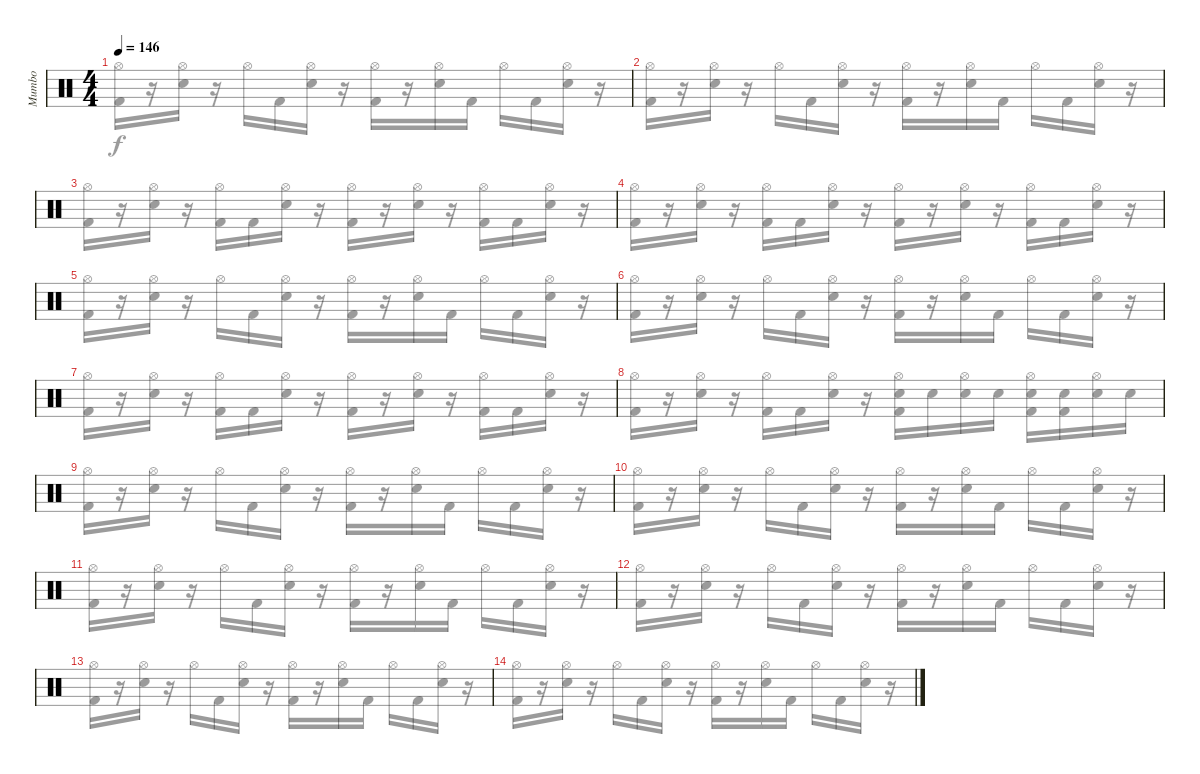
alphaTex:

\track ("Mumbo" "Mumbo") {instrument percussion}
\staff {score}
\articulation defaults
\voice
\ts (4 4)
\tempo 146
\clef neutral
\ks c
|
|
|
|
|
|
|
|
|
|
|
|
|
|
\voice
\clef neutral
\ks c
("Hi-Hat (open)" "Kick (hit) 2").16{dy f} r.16 ("Hi-Hat (open)" "Snare (hit) 2").16 r.16 "Hi-Hat (open)".16 "Kick (hit) 2".16 ("Hi-Hat (open)" "Snare (hit) 2").16 r.16 ("Hi-Hat (open)" "Kick (hit) 2").16 r.16 ("Hi-Hat (open)" "Snare (hit) 2").16 "Kick (hit) 2".16 "Hi-Hat (open)".16 "Kick (hit) 2".16 ("Hi-Hat (open)" "Snare (hit) 2").16 r.16 |
("Hi-Hat (open)" "Kick (hit) 2").16 r.16 ("Hi-Hat (open)" "Snare (hit) 2").16 r.16 "Hi-Hat (open)".16 "Kick (hit) 2".16 ("Hi-Hat (open)" "Snare (hit) 2").16 r.16 ("Hi-Hat (open)" "Kick (hit) 2").16 r.16 ("Hi-Hat (open)" "Snare (hit) 2").16 "Kick (hit) 2".16 "Hi-Hat (open)".16 "Kick (hit) 2".16 ("Hi-Hat (open)" "Snare (hit) 2").16 r.16 |
("Hi-Hat (open)" "Kick (hit) 2").16 r.16 ("Hi-Hat (open)" "Snare (hit) 2").16 r.16 ("Hi-Hat (open)" "Kick (hit) 2").16 "Kick (hit) 2".16 ("Hi-Hat (open)" "Snare (hit) 2").16 r.16 ("Hi-Hat (open)" "Kick (hit) 2").16 r.16 ("Hi-Hat (open)" "Snare (hit) 2").16 r.16 ("Hi-Hat (open)" "Kick (hit) 2").16 "Kick (hit) 2".16 ("Hi-Hat (open)" "Snare (hit) 2").16 r.16 |
("Hi-Hat (open)" "Kick (hit) 2").16 r.16 ("Hi-Hat (open)" "Snare (hit) 2").16 r.16 ("Hi-Hat (open)" "Kick (hit) 2").16 "Kick (hit) 2".16 ("Hi-Hat (open)" "Snare (hit) 2").16 r.16 ("Hi-Hat (open)" "Kick (hit) 2").16 r.16 ("Hi-Hat (open)" "Snare (hit) 2").16 r.16 ("Hi-Hat (open)" "Kick (hit) 2").16 "Kick (hit) 2".16 ("Hi-Hat (open)" "Snare (hit) 2").16 r.16 |
("Hi-Hat (open)" "Kick (hit) 2").16 r.16 ("Hi-Hat (open)" "Snare (hit) 2").16 r.16 "Hi-Hat (open)".16 "Kick (hit) 2".16 ("Hi-Hat (open)" "Snare (hit) 2").16 r.16 ("Hi-Hat (open)" "Kick (hit) 2").16 r.16 ("Hi-Hat (open)" "Snare (hit) 2").16 "Kick (hit) 2".16 "Hi-Hat (open)".16 "Kick (hit) 2".16 ("Hi-Hat (open)" "Snare (hit) 2").16 r.16 |
("Hi-Hat (open)" "Kick (hit) 2").16 r.16 ("Hi-Hat (open)" "Snare (hit) 2").16 r.16 "Hi-Hat (open)".16 "Kick (hit) 2".16 ("Hi-Hat (open)" "Snare (hit) 2").16 r.16 ("Hi-Hat (open)" "Kick (hit) 2").16 r.16 ("Hi-Hat (open)" "Snare (hit) 2").16 "Kick (hit) 2".16 "Hi-Hat (open)".16 "Kick (hit) 2".16 ("Hi-Hat (open)" "Snare (hit) 2").16 r.16 |
("Hi-Hat (open)" "Kick (hit) 2").16 r.16 ("Hi-Hat (open)" "Snare (hit) 2").16 r.16 ("Hi-Hat (open)" "Kick (hit) 2").16 "Kick (hit) 2".16 ("Hi-Hat (open)" "Snare (hit) 2").16 r.16 ("Hi-Hat (open)" "Kick (hit) 2").16 r.16 ("Hi-Hat (open)" "Snare (hit) 2").16 r.16 ("Hi-Hat (open)" "Kick (hit) 2").16 "Kick (hit) 2".16 ("Hi-Hat (open)" "Snare (hit) 2").16 r.16 |
("Hi-Hat (open)" "Kick (hit) 2").16 r.16 ("Hi-Hat (open)" "Snare (hit) 2").16 r.16 ("Hi-Hat (open)" "Kick (hit) 2").16 "Kick (hit) 2".16 ("Hi-Hat (open)" "Snare (hit) 2").16 r.16 ("Hi-Hat (open)" "Snare (hit) 2" "Kick (hit) 2").16 "Snare (hit) 2".16 ("Hi-Hat (open)" "Snare (hit) 2").16 "Snare (hit) 2".16 ("Hi-Hat (open)" "Snare (hit) 2" "Kick (hit) 2").16 ("Snare (hit) 2" "Kick (hit) 2").16 ("Hi-Hat (open)" "Snare (hit) 2").16 "Snare (hit) 2".16 |
("Hi-Hat (open)" "Kick (hit) 2").16 r.16 ("Hi-Hat (open)" "Snare (hit) 2").16 r.16 "Hi-Hat (open)".16 "Kick (hit) 2".16 ("Hi-Hat (open)" "Snare (hit) 2").16 r.16 ("Hi-Hat (open)" "Kick (hit) 2").16 r.16 ("Hi-Hat (open)" "Snare (hit) 2").16 "Kick (hit) 2".16 "Hi-Hat (open)".16 "Kick (hit) 2".16 ("Hi-Hat (open)" "Snare (hit) 2").16 r.16 |
("Hi-Hat (open)" "Kick (hit) 2").16 r.16 ("Hi-Hat (open)" "Snare (hit) 2").16 r.16 "Hi-Hat (open)".16 "Kick (hit) 2".16 ("Hi-Hat (open)" "Snare (hit) 2").16 r.16 ("Hi-Hat (open)" "Kick (hit) 2").16 r.16 ("Hi-Hat (open)" "Snare (hit) 2").16 "Kick (hit) 2".16 "Hi-Hat (open)".16 "Kick (hit) 2".16 ("Hi-Hat (open)" "Snare (hit) 2").16 r.16 |
("Hi-Hat (open)" "Kick (hit) 2").16 r.16 ("Hi-Hat (open)" "Snare (hit) 2").16 r.16 "Hi-Hat (open)".16 "Kick (hit) 2".16 ("Hi-Hat (open)" "Snare (hit) 2").16 r.16 ("Hi-Hat (open)" "Kick (hit) 2").16 r.16 ("Hi-Hat (open)" "Snare (hit) 2").16 "Kick (hit) 2".16 "Hi-Hat (open)".16 "Kick (hit) 2".16 ("Hi-Hat (open)" "Snare (hit) 2").16 r.16 |
("Hi-Hat (open)" "Kick (hit) 2").16 r.16 ("Hi-Hat (open)" "Snare (hit) 2").16 r.16 "Hi-Hat (open)".16 "Kick (hit) 2".16 ("Hi-Hat (open)" "Snare (hit) 2").16 r.16 ("Hi-Hat (open)" "Kick (hit) 2").16 r.16 ("Hi-Hat (open)" "Snare (hit) 2").16 "Kick (hit) 2".16 "Hi-Hat (open)".16 "Kick (hit) 2".16 ("Hi-Hat (open)" "Snare (hit) 2").16 r.16 |
("Hi-Hat (open)" "Kick (hit) 2").16 r.16 ("Hi-Hat (open)" "Snare (hit) 2").16 r.16 "Hi-Hat (open)".16 "Kick (hit) 2".16 ("Hi-Hat (open)" "Snare (hit) 2").16 r.16 ("Hi-Hat (open)" "Kick (hit) 2").16 r.16 ("Hi-Hat (open)" "Snare (hit) 2").16 "Kick (hit) 2".16 "Hi-Hat (open)".16 "Kick (hit) 2".16 ("Hi-Hat (open)" "Snare (hit) 2").16 r.16 |
("Hi-Hat (open)" "Kick (hit) 2").16 r.16 ("Hi-Hat (open)" "Snare (hit) 2").16 r.16 "Hi-Hat (open)".16 "Kick (hit) 2".16 ("Hi-Hat (open)" "Snare (hit) 2").16 r.16 ("Hi-Hat (open)" "Kick (hit) 2").16 r.16 ("Hi-Hat (open)" "Snare (hit) 2").16 "Kick (hit) 2".16 "Hi-Hat (open)".16 "Kick (hit) 2".16 ("Hi-Hat (open)" "Snare (hit) 2").16 r.16 |
